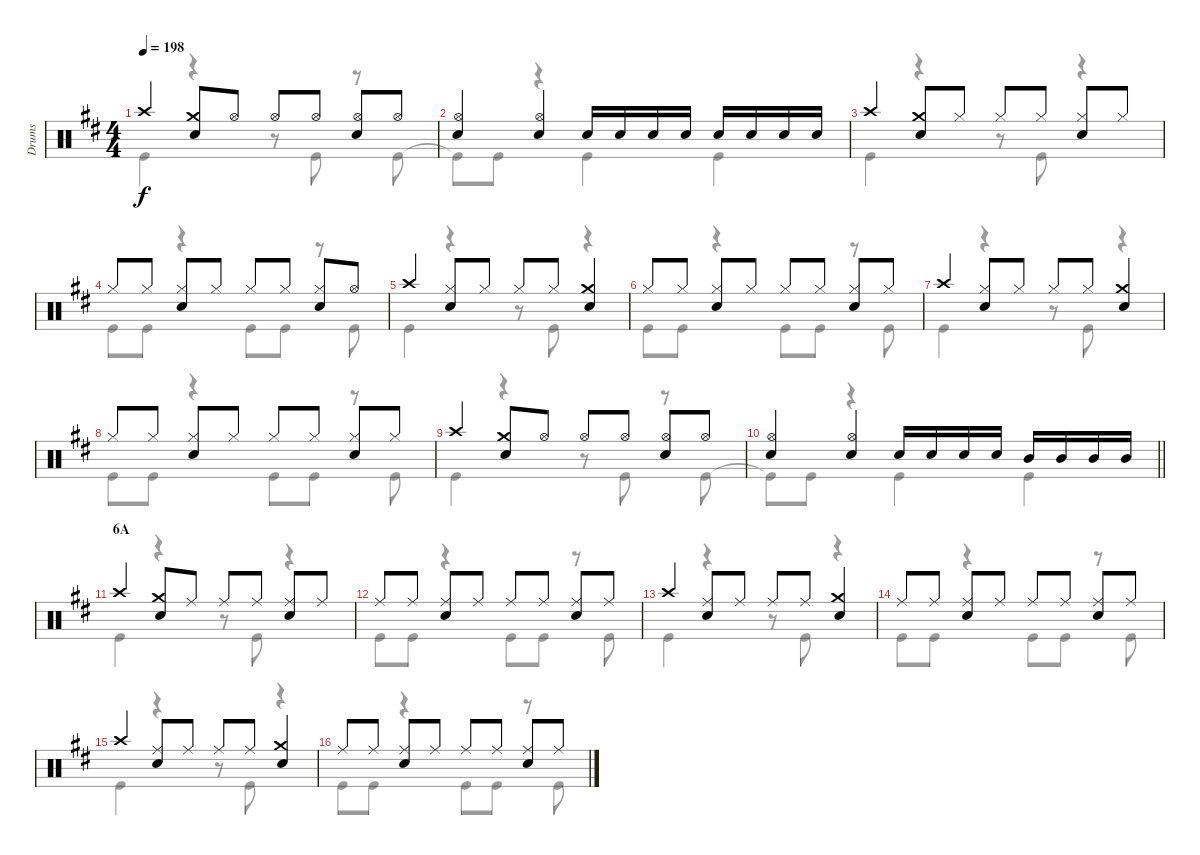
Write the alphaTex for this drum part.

\track ("Drums" "Drums") {instrument percussion}
\staff {score}
\articulation defaults
\voice
\ts (4 4)
\tempo 198
\clef neutral
\ks d "Crash high (hit)".4{dy f}
("Crash medium (hit)" "Snare (hit) 2").8 "Hi-Hat (open)".8 "Hi-Hat (open)".8 "Hi-Hat (open)".8 ("Hi-Hat (open)" "Snare (hit) 2").8 "Hi-Hat (open)".8 |
("Hi-Hat (open)" "Snare (hit) 2").4 ("Hi-Hat (open)" "Snare (hit) 2").4 "Snare (hit) 2".16 "Snare (hit) 2".16 "Snare (hit) 2".16 "Snare (hit) 2".16 "Snare (hit) 2".16 "Snare (hit) 2".16 "Snare (hit) 2".16 "Snare (hit) 2".16 |
"Crash high (hit)".4 ("Crash medium (hit)" "Snare (hit) 2").8 "Hi-Hat (closed)".8 "Hi-Hat (closed)".8 "Hi-Hat (closed)".8 ("Hi-Hat (closed)" "Snare (hit) 2").8 "Hi-Hat (closed)".8 |
"Hi-Hat (closed)".8 "Hi-Hat (closed)".8 ("Hi-Hat (closed)" "Snare (hit) 2").8 "Hi-Hat (closed)".8 "Hi-Hat (closed)".8 "Hi-Hat (closed)".8 ("Hi-Hat (closed)" "Snare (hit) 2").8 "Hi-Hat (open)".8 |
"Crash high (hit)".4 ("Hi-Hat (closed)" "Snare (hit) 2").8 "Hi-Hat (closed)".8 "Hi-Hat (closed)".8 "Hi-Hat (closed)".8 ("Crash medium (hit)" "Snare (hit) 2").4 |
"Hi-Hat (closed)".8 "Hi-Hat (closed)".8 ("Hi-Hat (closed)" "Snare (hit) 2").8 "Hi-Hat (closed)".8 "Hi-Hat (closed)".8 "Hi-Hat (closed)".8 ("Hi-Hat (closed)" "Snare (hit) 2").8 "Hi-Hat (closed)".8 |
"Crash high (hit)".4 ("Hi-Hat (closed)" "Snare (hit) 2").8 "Hi-Hat (closed)".8 "Hi-Hat (closed)".8 "Hi-Hat (closed)".8 ("Crash medium (hit)" "Snare (hit) 2").4 |
"Hi-Hat (closed)".8 "Hi-Hat (closed)".8 ("Hi-Hat (closed)" "Snare (hit) 2").8 "Hi-Hat (closed)".8 "Hi-Hat (closed)".8 "Hi-Hat (closed)".8 ("Hi-Hat (closed)" "Snare (hit) 2").8 "Hi-Hat (closed)".8 |
"Crash high (hit)".4 ("Crash medium (hit)" "Snare (hit) 2").8 "Hi-Hat (open)".8 "Hi-Hat (open)".8 "Hi-Hat (open)".8 ("Hi-Hat (open)" "Snare (hit) 2").8 "Hi-Hat (open)".8 |
\barLineRight lightlight
("Hi-Hat (open)" "Snare (hit) 2").4 ("Hi-Hat (open)" "Snare (hit) 2").4 "Snare (hit) 2".16 "Snare (hit) 2".16 "Snare (hit) 2".16 "Snare (hit) 2".16 "Mid Tom (hit)".16 "Mid Tom (hit)".16 "Mid Tom (hit)".16 "Mid Tom (hit)".16 |
\section ("" "6A")
"Crash high (hit)".4 ("Crash medium (hit)" "Snare (hit) 2").8 "Ride (middle)".8 "Ride (middle)".8 "Ride (middle)".8 ("Ride (middle)" "Snare (hit) 2").8 "Ride (middle)".8 |
"Ride (middle)".8 "Ride (middle)".8 ("Ride (middle)" "Snare (hit) 2").8 "Ride (middle)".8 "Ride (middle)".8 "Ride (middle)".8 ("Ride (middle)" "Snare (hit) 2").8 "Ride (middle)".8 |
"Crash high (hit)".4 ("Ride (middle)" "Snare (hit) 2").8 "Ride (middle)".8 "Ride (middle)".8 "Ride (middle)".8 ("Crash medium (hit)" "Snare (hit) 2").4 |
"Ride (middle)".8 "Ride (middle)".8 ("Ride (middle)" "Snare (hit) 2").8 "Ride (middle)".8 "Ride (middle)".8 "Ride (middle)".8 ("Ride (middle)" "Snare (hit) 2").8 "Ride (middle)".8 |
"Crash high (hit)".4 ("Ride (middle)" "Snare (hit) 2").8 "Ride (middle)".8 "Ride (middle)".8 "Ride (middle)".8 ("Crash medium (hit)" "Snare (hit) 2").4 |
"Ride (middle)".8 "Ride (middle)".8 ("Ride (middle)" "Snare (hit) 2").8 "Ride (middle)".8 "Ride (middle)".8 "Ride (middle)".8 ("Ride (middle)" "Snare (hit) 2").8 "Ride (middle)".8
\voice
\clef neutral
\ottava regular
\simile none
\ks d "Kick (hit)".4{dy f}
r.4 r.8 "Kick (hit)".8 r.8 "Kick (hit)".8 |
"Kick (hit)"{t}.8 "Kick (hit)".8 r.4 "Kick (hit)".4 "Kick (hit)".4 |
"Kick (hit)".4 r.4 r.8 "Kick (hit)".8 r.4 |
"Kick (hit)".8 "Kick (hit)".8 r.4 "Kick (hit)".8 "Kick (hit)".8 r.8 "Kick (hit)".8 |
"Kick (hit)".4 r.4 r.8 "Kick (hit)".8 r.4 |
"Kick (hit)".8 "Kick (hit)".8 r.4 "Kick (hit)".8 "Kick (hit)".8 r.8 "Kick (hit)".8 |
"Kick (hit)".4 r.4 r.8 "Kick (hit)".8 r.4 |
"Kick (hit)".8 "Kick (hit)".8 r.4 "Kick (hit)".8 "Kick (hit)".8 r.8 "Kick (hit)".8 |
"Kick (hit)".4 r.4 r.8 "Kick (hit)".8 r.8 "Kick (hit)".8 |
\barLineRight lightlight "Kick (hit)"{t}.8 "Kick (hit)".8
r.4 "Kick (hit)".4 "Kick (hit)".4 |
"Kick (hit)".4 r.4 r.8 "Kick (hit)".8 r.4 |
"Kick (hit)".8 "Kick (hit)".8 r.4 "Kick (hit)".8 "Kick (hit)".8 r.8 "Kick (hit)".8 |
"Kick (hit)".4 r.4 r.8 "Kick (hit)".8 r.4 |
"Kick (hit)".8 "Kick (hit)".8 r.4 "Kick (hit)".8 "Kick (hit)".8 r.8 "Kick (hit)".8 |
"Kick (hit)".4 r.4 r.8 "Kick (hit)".8 r.4 |
"Kick (hit)".8 "Kick (hit)".8 r.4 "Kick (hit)".8 "Kick (hit)".8 r.8 "Kick (hit)".8
